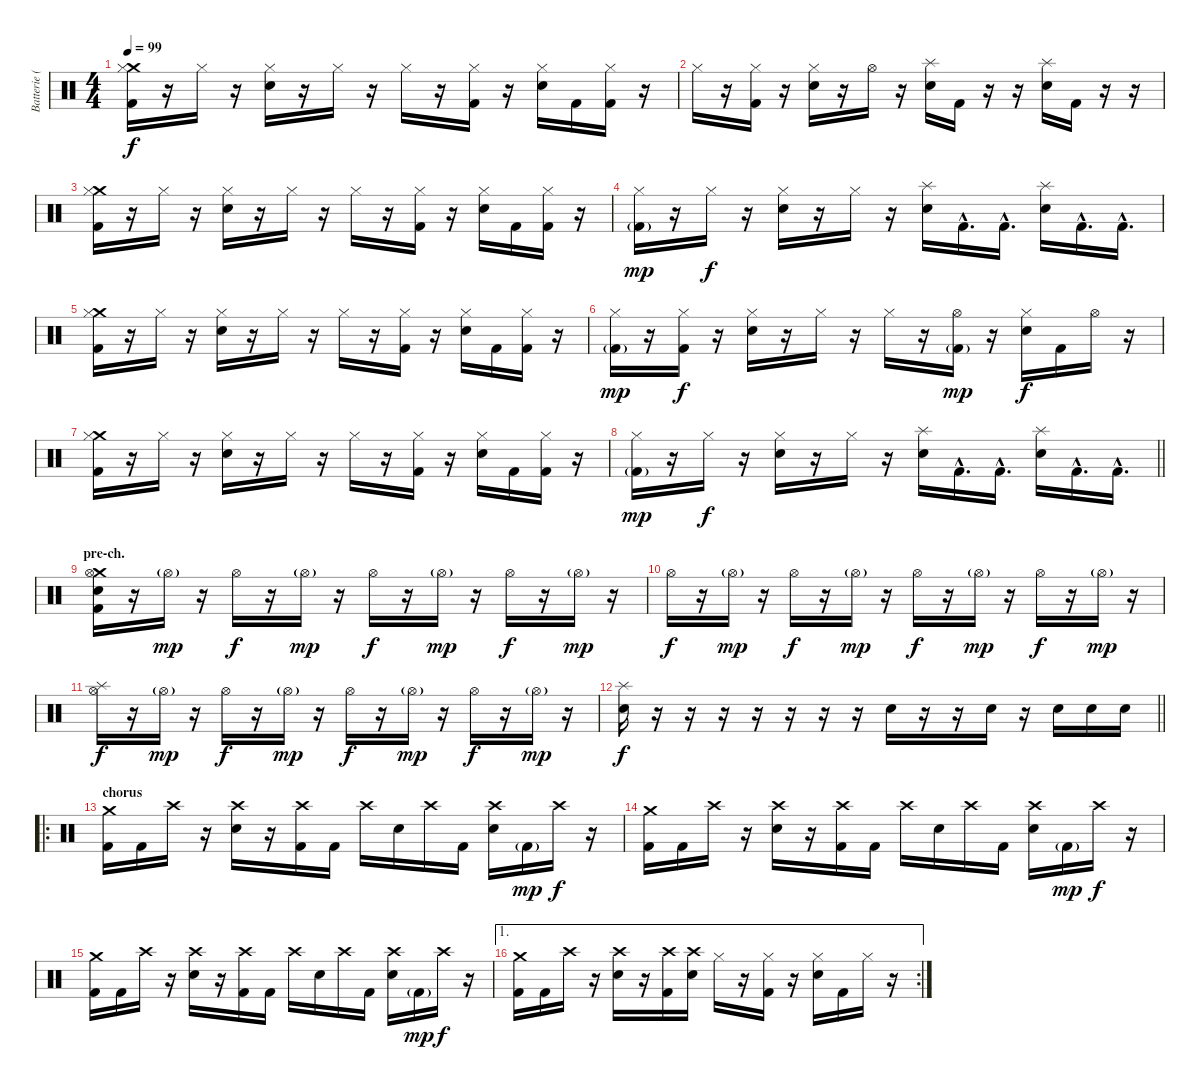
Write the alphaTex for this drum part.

\track ("Batterie (John)" "Batterie (") {instrument percussion}
\staff {score}
\articulation defaults
\ts (4 4)
\tempo 99
\clef neutral
\ks c
("Crash medium (hit)" "Hi-Hat (closed)" "Kick (hit) 2").16{dy f} r.16 "Hi-Hat (closed)".16 r.16 ("Hi-Hat (closed)" "Electric Snare (hit)").16 r.16 "Hi-Hat (closed)".16 r.16 "Hi-Hat (closed)".16 r.16 ("Hi-Hat (closed)" "Kick (hit) 2").16 r.16 ("Hi-Hat (closed)" "Electric Snare (hit)").16 "Kick (hit) 2".16 ("Hi-Hat (closed)" "Kick (hit) 2").16 r.16 |
"Hi-Hat (closed)".16 r.16 ("Hi-Hat (closed)" "Kick (hit) 2").16 r.16 ("Hi-Hat (closed)" "Electric Snare (hit)").16 r.16 "Hi-Hat (open)".16 r.16 ("Splash (hit)" "Electric Snare (hit)").16 "Kick (hit) 2".16 r.16 r.16 ("Splash (hit)" "Electric Snare (hit)").16 "Kick (hit) 2".16 r.16 r.16 |
("Crash medium (hit)" "Hi-Hat (closed)" "Kick (hit) 2").16 r.16 "Hi-Hat (closed)".16 r.16 ("Hi-Hat (closed)" "Electric Snare (hit)").16 r.16 "Hi-Hat (closed)".16 r.16 "Hi-Hat (closed)".16 r.16 ("Hi-Hat (closed)" "Kick (hit) 2").16 r.16 ("Hi-Hat (closed)" "Electric Snare (hit)").16 "Kick (hit) 2".16 ("Hi-Hat (closed)" "Kick (hit) 2").16 r.16 |
("Hi-Hat (closed)" "Kick (hit) 2"{g}).16{dy mp} r.16 "Hi-Hat (closed)".16{dy f} r.16 ("Hi-Hat (closed)" "Electric Snare (hit)").16 r.16 "Hi-Hat (closed)".16 r.16 ("Splash (hit)" "Electric Snare (hit)").16 "Kick (hit) 2"{hac}.16{d} "Kick (hit) 2"{hac}.16{d} ("Splash (hit)" "Electric Snare (hit)").16 "Kick (hit) 2"{hac}.16{d} "Kick (hit) 2"{hac}.16{d} |
("Crash medium (hit)" "Hi-Hat (closed)" "Kick (hit) 2").16 r.16 "Hi-Hat (closed)".16 r.16 ("Hi-Hat (closed)" "Electric Snare (hit)").16 r.16 "Hi-Hat (closed)".16 r.16 "Hi-Hat (closed)".16 r.16 ("Hi-Hat (closed)" "Kick (hit) 2").16 r.16 ("Hi-Hat (closed)" "Electric Snare (hit)").16 "Kick (hit) 2".16 ("Hi-Hat (closed)" "Kick (hit) 2").16 r.16 |
("Hi-Hat (closed)" "Kick (hit) 2"{g}).16{dy mp} r.16 ("Hi-Hat (closed)" "Kick (hit) 2").16{dy f} r.16 ("Hi-Hat (closed)" "Electric Snare (hit)").16 r.16 "Hi-Hat (closed)".16 r.16 "Hi-Hat (closed)".16 r.16 ("Hi-Hat (open)" "Kick (hit) 2"{g}).16{dy mp} r.16 ("Hi-Hat (closed)" "Electric Snare (hit)").16{dy f} "Kick (hit) 2".16 "Hi-Hat (open)".16 r.16 |
("Crash medium (hit)" "Hi-Hat (closed)" "Kick (hit) 2").16 r.16 "Hi-Hat (closed)".16 r.16 ("Hi-Hat (closed)" "Electric Snare (hit)").16 r.16 "Hi-Hat (closed)".16 r.16 "Hi-Hat (closed)".16 r.16 ("Hi-Hat (closed)" "Kick (hit) 2").16 r.16 ("Hi-Hat (closed)" "Electric Snare (hit)").16 "Kick (hit) 2".16 ("Hi-Hat (closed)" "Kick (hit) 2").16 r.16 |
\barLineRight lightlight
("Hi-Hat (closed)" "Kick (hit) 2"{g}).16{dy mp} r.16 "Hi-Hat (closed)".16{dy f} r.16 ("Hi-Hat (closed)" "Electric Snare (hit)").16 r.16 "Hi-Hat (closed)".16 r.16 ("Splash (hit)" "Electric Snare (hit)").16 "Kick (hit) 2"{hac}.16{d} "Kick (hit) 2"{hac}.16{d} ("Splash (hit)" "Electric Snare (hit)").16 "Kick (hit) 2"{hac}.16{d} "Kick (hit) 2"{hac}.16{d} |
\section ("" "pre-ch.")
("Crash medium (hit)" "Hi-Hat (open)" "Electric Snare (hit)" "Kick (hit) 2").16 r.16 "Hi-Hat (open)"{g}.16{dy mp} r.16 "Hi-Hat (open)".16{dy f} r.16 "Hi-Hat (open)"{g}.16{dy mp} r.16 "Hi-Hat (open)".16{dy f} r.16 "Hi-Hat (open)"{g}.16{dy mp} r.16 "Hi-Hat (open)".16{dy f} r.16 "Hi-Hat (open)"{g}.16{dy mp} r.16 |
"Hi-Hat (open)".16{dy f} r.16 "Hi-Hat (open)"{g}.16{dy mp} r.16 "Hi-Hat (open)".16{dy f} r.16 "Hi-Hat (open)"{g}.16{dy mp} r.16 "Hi-Hat (open)".16{dy f} r.16 "Hi-Hat (open)"{g}.16{dy mp} r.16 "Hi-Hat (open)".16{dy f} r.16 "Hi-Hat (open)"{g}.16{dy mp} r.16 |
("Splash (hit)" "Hi-Hat (open)").16{dy f} r.16 "Hi-Hat (open)"{g}.16{dy mp} r.16 "Hi-Hat (open)".16{dy f} r.16 "Hi-Hat (open)"{g}.16{dy mp} r.16 "Hi-Hat (open)".16{dy f} r.16 "Hi-Hat (open)"{g}.16{dy mp} r.16 "Hi-Hat (open)".16{dy f} r.16 "Hi-Hat (open)"{g}.16{dy mp} r.16 |
\barLineRight lightlight
("Splash (hit)" "Electric Snare (hit)").16{dy f} r.16 r.16 r.16 r.16 r.16 r.16 r.16 "Electric Snare (hit)".16 r.16 r.16 "Electric Snare (hit)".16 r.16 "Electric Snare (hit)".16 "Electric Snare (hit)".16 "Electric Snare (hit)".16 |
\ro
\section ("" "chorus")
("Crash medium (hit)" "Kick (hit) 2").16 "Kick (hit) 2".16 "Crash high (hit)".16 r.16 ("Crash high (hit)" "Electric Snare (hit)").16 r.16 ("Crash high (hit)" "Kick (hit) 2").16 "Kick (hit) 2".16 "Crash high (hit)".16 "Electric Snare (hit)".16 "Crash high (hit)".16 "Kick (hit) 2".16 ("Crash high (hit)" "Electric Snare (hit)").16 "Kick (hit) 2"{g}.16{dy mp} "Crash high (hit)".16{dy f} r.16 |
("Crash medium (hit)" "Kick (hit) 2").16 "Kick (hit) 2".16 "Crash high (hit)".16 r.16 ("Crash high (hit)" "Electric Snare (hit)").16 r.16 ("Crash high (hit)" "Kick (hit) 2").16 "Kick (hit) 2".16 "Crash high (hit)".16 "Electric Snare (hit)".16 "Crash high (hit)".16 "Kick (hit) 2".16 ("Crash high (hit)" "Electric Snare (hit)").16 "Kick (hit) 2"{g}.16{dy mp} "Crash high (hit)".16{dy f} r.16 |
("Crash medium (hit)" "Kick (hit) 2").16 "Kick (hit) 2".16 "Crash high (hit)".16 r.16 ("Crash high (hit)" "Electric Snare (hit)").16 r.16 ("Crash high (hit)" "Kick (hit) 2").16 "Kick (hit) 2".16 "Crash high (hit)".16 "Electric Snare (hit)".16 "Crash high (hit)".16 "Kick (hit) 2".16 ("Crash high (hit)" "Electric Snare (hit)").16 "Kick (hit) 2"{g}.16{dy mp} "Crash high (hit)".16{dy f} r.16 |
\ae 1
\rc 2
("Crash medium (hit)" "Kick (hit) 2").16 "Kick (hit) 2".16 "Crash high (hit)".16 r.16 ("Crash high (hit)" "Electric Snare (hit)").16 r.16 ("Crash high (hit)" "Kick (hit) 2").16 ("Crash high (hit)" "Electric Snare (hit)").16 "Hi-Hat (closed)".16 r.16 ("Hi-Hat (closed)" "Kick (hit) 2").16 r.16 ("Hi-Hat (closed)" "Electric Snare (hit)").16 "Kick (hit) 2".16 "Hi-Hat (closed)".16 r.16
